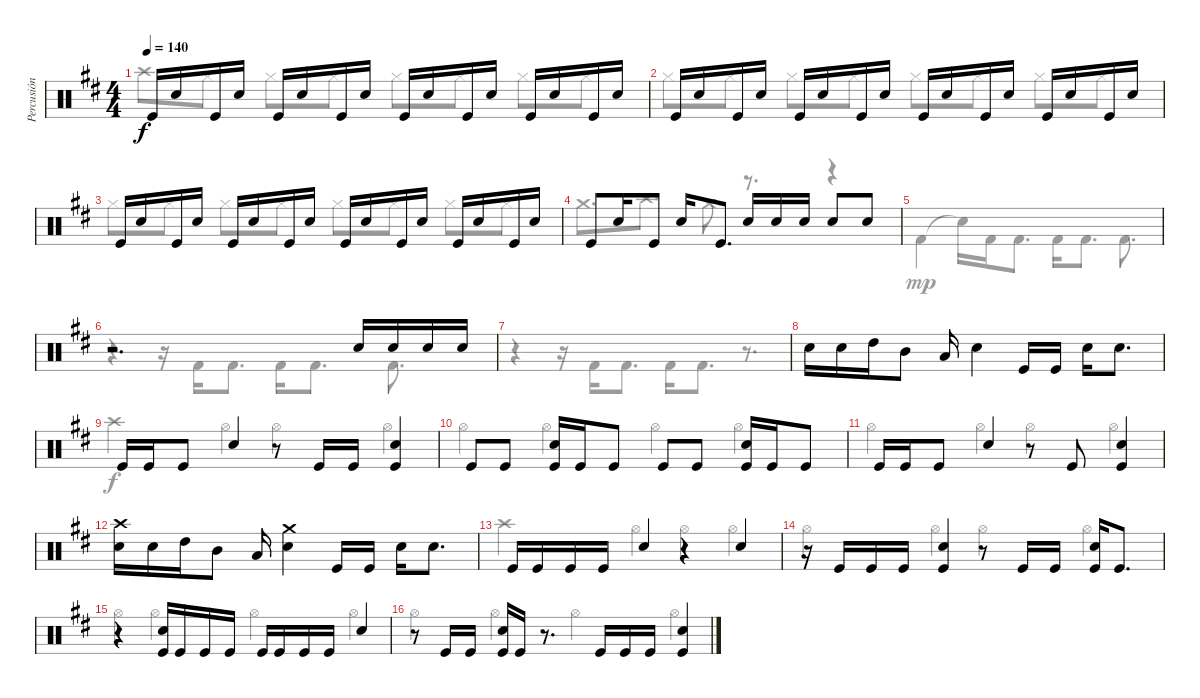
\track ("Percusión" "Percusión") {instrument percussion}
\staff {score}
\articulation defaults
\voice
\ts (4 4)
\tempo 140
\clef neutral
\ks bminor "Kick (hit)".16{dy f} "Snare (hit) 2".16 "Kick (hit)".16 "Snare (hit) 2".16 "Kick (hit)".16 "Snare (hit) 2".16 "Kick (hit)".16 "Snare (hit) 2".16 "Kick (hit)".16 "Snare (hit) 2".16 "Kick (hit)".16 "Snare (hit) 2".16 "Kick (hit)".16 "Snare (hit) 2".16 "Kick (hit)".16 "Snare (hit) 2".16
|
"Kick (hit)".16 "Snare (hit) 2".16 "Kick (hit)".16 "Snare (hit) 2".16 "Kick (hit)".16 "Snare (hit) 2".16 "Kick (hit)".16 "Snare (hit) 2".16 "Kick (hit)".16 "Snare (hit) 2".16 "Kick (hit)".16 "Snare (hit) 2".16 "Kick (hit)".16 "Snare (hit) 2".16 "Kick (hit)".16 "Snare (hit) 2".16 |
"Kick (hit)".16 "Snare (hit) 2".16 "Kick (hit)".16 "Snare (hit) 2".16 "Kick (hit)".16 "Snare (hit) 2".16 "Kick (hit)".16 "Snare (hit) 2".16 "Kick (hit)".16 "Snare (hit) 2".16 "Kick (hit)".16 "Snare (hit) 2".16 "Kick (hit)".16 "Snare (hit) 2".16 "Kick (hit)".16 "Snare (hit) 2".16 |
"Kick (hit)".8 "Snare (hit) 2".16 "Kick (hit)".8 "Snare (hit) 2".16 "Kick (hit)".8{d} "Snare (hit) 2".16 "Snare (hit) 2".16 "Snare (hit) 2".16 "Snare (hit) 2".8 "Snare (hit) 2".8 |
|
r.2{d} "Snare (hit) 2".16 "Snare (hit) 2".16 "Snare (hit) 2".16 "Snare (hit) 2".16 |
|
"Snare (hit) 2".16 "Snare (hit) 2".16 "High Tom (hit)".16 "Mid Tom (hit)".8 "Low Tom (hit)".16 "Snare (hit) 2".4 "Kick (hit)".16 "Kick (hit)".16 "Snare (hit) 2".16 "Snare (hit) 2".8{d} |
"Kick (hit)".16 "Kick (hit)".16 "Kick (hit)".8 "Snare (hit) 2".4 r.8 "Kick (hit)".16 "Kick (hit)".16 ("Snare (hit) 2" "Kick (hit)").4 |
"Kick (hit)".8 "Kick (hit)".8 ("Snare (hit) 2" "Kick (hit)").16 "Kick (hit)".16 "Kick (hit)".8 "Kick (hit)".8 "Kick (hit)".8 ("Snare (hit) 2" "Kick (hit)").16 "Kick (hit)".16 "Kick (hit)".8 |
"Kick (hit)".16 "Kick (hit)".16 "Kick (hit)".8 "Snare (hit) 2".4 r.8 "Kick (hit)".8 ("Snare (hit) 2" "Kick (hit)").4 |
("Crash high (hit)" "Snare (hit) 2").16 "Snare (hit) 2".16 "High Tom (hit)".16 "Mid Tom (hit)".8 "Low Tom (hit)".16 ("Crash medium (hit)" "Snare (hit) 2").4 "Kick (hit)".16 "Kick (hit)".16 "Snare (hit) 2".16 "Snare (hit) 2".8{d} |
"Kick (hit)".16 "Kick (hit)".16 "Kick (hit)".16 "Kick (hit)".16 "Snare (hit) 2".4 r.4 "Snare (hit) 2".4 |
r.16 "Kick (hit)".16 "Kick (hit)".16 "Kick (hit)".16 ("Snare (hit) 2" "Kick (hit)").4 r.8 "Kick (hit)".16 "Kick (hit)".16 ("Snare (hit) 2" "Kick (hit)").16 "Kick (hit)".8{d} |
r.4 ("Snare (hit) 2" "Kick (hit)").16 "Kick (hit)".16 "Kick (hit)".16 "Kick (hit)".16 "Kick (hit)".16 "Kick (hit)".16 "Kick (hit)".16 "Kick (hit)".16 "Snare (hit) 2".4 |
r.8 "Kick (hit)".16 "Kick (hit)".16 ("Snare (hit) 2" "Kick (hit)").16 "Kick (hit)".16 r.8{d} "Kick (hit)".16 "Kick (hit)".16 "Kick (hit)".16 ("Snare (hit) 2" "Kick (hit)").4
\voice
\clef neutral
\ottava regular
\simile none
\ks bminor "Crash high (hit)".8{dy f} "Hi-Hat (closed)".8 "Hi-Hat (closed)".8 "Hi-Hat (closed)".8 "Hi-Hat (closed)".8 "Hi-Hat (closed)".8 "Hi-Hat (closed)".8 "Hi-Hat (closed)".8
|
"Hi-Hat (closed)".8 "Hi-Hat (closed)".8 "Hi-Hat (closed)".8 "Hi-Hat (closed)".8 "Hi-Hat (closed)".8 "Hi-Hat (closed)".8 "Hi-Hat (closed)".8 "Hi-Hat (closed)".8 |
"Hi-Hat (closed)".8 "Hi-Hat (closed)".8 "Hi-Hat (closed)".8 "Hi-Hat (closed)".8 "Hi-Hat (closed)".8 "Hi-Hat (closed)".8 "Hi-Hat (closed)".8 "Hi-Hat (closed)".8 |
"Crash medium (hit)".8{d} "Crash high (hit)".8{d} "Crash medium (hit)".8{d} r.8{d} r.4 |
"Kick (hit) 2".4{dy mp} "Snare (hit)"{t}.16 "Kick (hit) 2".16 "Kick (hit) 2".8{d} "Kick (hit) 2".16 "Kick (hit) 2".8{d} "Kick (hit) 2".8{d} |
r.4 r.16 "Kick (hit) 2".16 "Kick (hit) 2".8{d} "Kick (hit) 2".16 "Kick (hit) 2".8{d} "Kick (hit) 2".8{d} |
r.4 r.16 "Kick (hit) 2".16 "Kick (hit) 2".8{d} "Kick (hit) 2".16 "Kick (hit) 2".8{d} r.8{d} |
|
"Crash high (hit)".4{dy f} "Hi-Hat (open)".4 "Hi-Hat (open)".4 "Hi-Hat (open)".4 |
"Hi-Hat (open)".4 "Hi-Hat (open)".4 "Hi-Hat (open)".4 "Hi-Hat (open)".4 |
"Hi-Hat (open)".4 "Hi-Hat (open)".4 "Hi-Hat (open)".4 "Hi-Hat (open)".4 |
|
"Crash high (hit)".4 "Hi-Hat (open)".4 "Hi-Hat (open)".4 "Hi-Hat (open)".4 |
"Hi-Hat (open)".4 "Hi-Hat (open)".4 "Hi-Hat (open)".4 "Hi-Hat (open)".4 |
"Hi-Hat (open)".4 "Hi-Hat (open)".4 "Hi-Hat (open)".4 "Hi-Hat (open)".4 |
"Hi-Hat (open)".4 "Hi-Hat (open)".4 "Hi-Hat (open)".4 "Hi-Hat (open)".4
